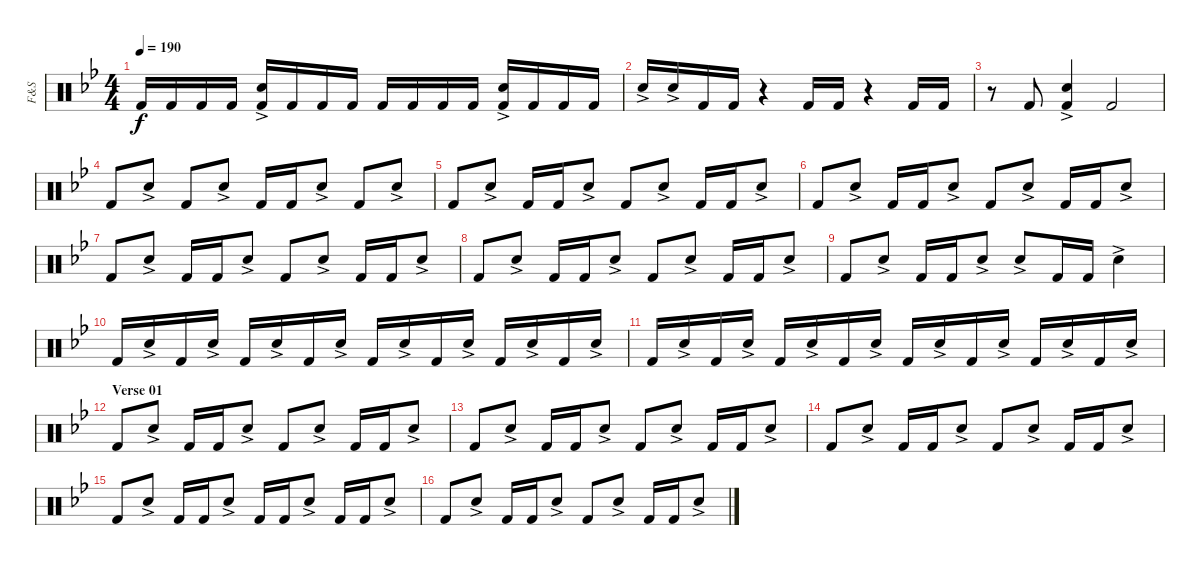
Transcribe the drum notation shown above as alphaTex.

\track ("F&S" "F&S") {instrument percussion}
\staff {score}
\articulation defaults
\ts (4 4)
\tempo 190
\clef neutral
\ks bb "Kick (hit) 2".16{dy f} "Kick (hit) 2".16 "Kick (hit) 2".16 "Kick (hit) 2".16
("Kick (hit) 2" "Snare (hit) 2"{ac}).16 "Kick (hit) 2".16 "Kick (hit) 2".16 "Kick (hit) 2".16 "Kick (hit) 2".16 "Kick (hit) 2".16 "Kick (hit) 2".16 "Kick (hit) 2".16 ("Kick (hit) 2" "Snare (hit) 2"{ac}).16 "Kick (hit) 2".16 "Kick (hit) 2".16 "Kick (hit) 2".16 |
"Snare (hit) 2"{ac}.16 "Snare (hit) 2"{ac}.16 "Kick (hit) 2".16 "Kick (hit) 2".16 r.4 "Kick (hit) 2".16 "Kick (hit) 2".16 r.4 "Kick (hit) 2".16 "Kick (hit) 2".16 |
r.8 "Kick (hit) 2".8 ("Snare (hit) 2"{ac} "Kick (hit) 2").4 "Kick (hit) 2".2 |
"Kick (hit) 2".8 "Snare (hit) 2"{ac}.8 "Kick (hit) 2".8 "Snare (hit) 2"{ac}.8 "Kick (hit) 2".16 "Kick (hit) 2".16 "Snare (hit) 2"{ac}.8 "Kick (hit) 2".8 "Snare (hit) 2"{ac}.8 |
"Kick (hit) 2".8 "Snare (hit) 2"{ac}.8 "Kick (hit) 2".16 "Kick (hit) 2".16 "Snare (hit) 2"{ac}.8 "Kick (hit) 2".8 "Snare (hit) 2"{ac}.8 "Kick (hit) 2".16 "Kick (hit) 2".16 "Snare (hit) 2"{ac}.8 |
"Kick (hit) 2".8 "Snare (hit) 2"{ac}.8 "Kick (hit) 2".16 "Kick (hit) 2".16 "Snare (hit) 2"{ac}.8 "Kick (hit) 2".8 "Snare (hit) 2"{ac}.8 "Kick (hit) 2".16 "Kick (hit) 2".16 "Snare (hit) 2"{ac}.8 |
"Kick (hit) 2".8 "Snare (hit) 2"{ac}.8 "Kick (hit) 2".16 "Kick (hit) 2".16 "Snare (hit) 2"{ac}.8 "Kick (hit) 2".8 "Snare (hit) 2"{ac}.8 "Kick (hit) 2".16 "Kick (hit) 2".16 "Snare (hit) 2"{ac}.8 |
"Kick (hit) 2".8 "Snare (hit) 2"{ac}.8 "Kick (hit) 2".16 "Kick (hit) 2".16 "Snare (hit) 2"{ac}.8 "Kick (hit) 2".8 "Snare (hit) 2"{ac}.8 "Kick (hit) 2".16 "Kick (hit) 2".16 "Snare (hit) 2"{ac}.8 |
"Kick (hit) 2".8 "Snare (hit) 2"{ac}.8 "Kick (hit) 2".16 "Kick (hit) 2".16 "Snare (hit) 2"{ac}.8 "Snare (hit) 2"{ac}.8 "Kick (hit) 2".16 "Kick (hit) 2".16 "Snare (hit) 2"{ac}.4 |
"Kick (hit) 2".16 "Snare (hit) 2"{ac}.16 "Kick (hit) 2".16 "Snare (hit) 2"{ac}.16 "Kick (hit) 2".16 "Snare (hit) 2"{ac}.16 "Kick (hit) 2".16 "Snare (hit) 2"{ac}.16 "Kick (hit) 2".16 "Snare (hit) 2"{ac}.16 "Kick (hit) 2".16 "Snare (hit) 2"{ac}.16 "Kick (hit) 2".16 "Snare (hit) 2"{ac}.16 "Kick (hit) 2".16 "Snare (hit) 2"{ac}.16 |
"Kick (hit) 2".16 "Snare (hit) 2"{ac}.16 "Kick (hit) 2".16 "Snare (hit) 2"{ac}.16 "Kick (hit) 2".16 "Snare (hit) 2"{ac}.16 "Kick (hit) 2".16 "Snare (hit) 2"{ac}.16 "Kick (hit) 2".16 "Snare (hit) 2"{ac}.16 "Kick (hit) 2".16 "Snare (hit) 2"{ac}.16 "Kick (hit) 2".16 "Snare (hit) 2"{ac}.16 "Kick (hit) 2".16 "Snare (hit) 2"{ac}.16 |
\section ("" "Verse 01")
"Kick (hit) 2".8 "Snare (hit) 2"{ac}.8 "Kick (hit) 2".16 "Kick (hit) 2".16 "Snare (hit) 2"{ac}.8 "Kick (hit) 2".8 "Snare (hit) 2"{ac}.8 "Kick (hit) 2".16 "Kick (hit) 2".16 "Snare (hit) 2"{ac}.8 |
"Kick (hit) 2".8 "Snare (hit) 2"{ac}.8 "Kick (hit) 2".16 "Kick (hit) 2".16 "Snare (hit) 2"{ac}.8 "Kick (hit) 2".8 "Snare (hit) 2"{ac}.8 "Kick (hit) 2".16 "Kick (hit) 2".16 "Snare (hit) 2"{ac}.8 |
"Kick (hit) 2".8 "Snare (hit) 2"{ac}.8 "Kick (hit) 2".16 "Kick (hit) 2".16 "Snare (hit) 2"{ac}.8 "Kick (hit) 2".8 "Snare (hit) 2"{ac}.8 "Kick (hit) 2".16 "Kick (hit) 2".16 "Snare (hit) 2"{ac}.8 |
"Kick (hit) 2".8 "Snare (hit) 2"{ac}.8 "Kick (hit) 2".16 "Kick (hit) 2".16 "Snare (hit) 2"{ac}.8 "Kick (hit) 2".16 "Kick (hit) 2".16 "Snare (hit) 2"{ac}.8 "Kick (hit) 2".16 "Kick (hit) 2".16 "Snare (hit) 2"{ac}.8 |
"Kick (hit) 2".8 "Snare (hit) 2"{ac}.8 "Kick (hit) 2".16 "Kick (hit) 2".16 "Snare (hit) 2"{ac}.8 "Kick (hit) 2".8 "Snare (hit) 2"{ac}.8 "Kick (hit) 2".16 "Kick (hit) 2".16 "Snare (hit) 2"{ac}.8
